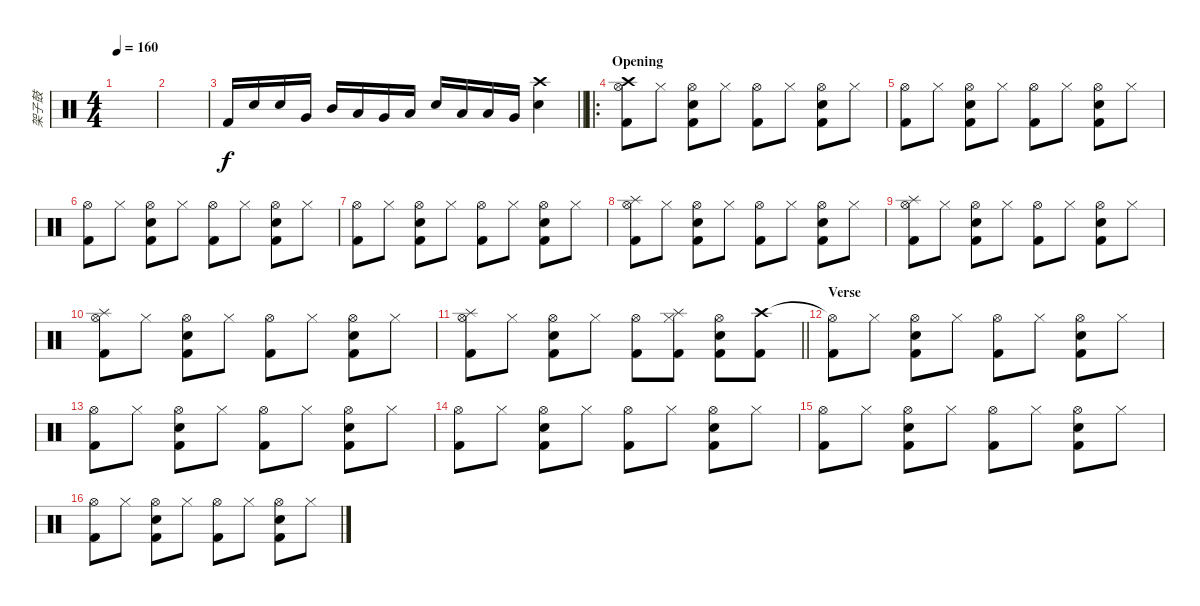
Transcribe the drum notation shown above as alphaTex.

\track ("架子鼓" "架子鼓") {instrument percussion}
\staff {score}
\articulation defaults
\ts (4 4)
\tempo 160
\clef neutral
\ks c
|
|
\barLineRight lightlight "Kick (hit) 2".16 "Snare (hit) 2".16 "Snare (hit) 2".16 "Very Low Tom (hit)".16 "Mid Tom (hit)".16 "Low Tom (hit)".16 "Very Low Tom (hit)".16 "Low Floor Tom (hit)".16 "Snare (hit) 2".16 "Low Tom (hit)".16 "Low Tom (hit)".16 "Very Low Tom (hit)".16
("Crash high (hit)" "Snare (hit) 2").4 |
\ro
\section ("" "Opening")
("Hi-Hat (open)" "Crash high (hit)" "Kick (hit) 2").8 "Hi-Hat (closed)".8 ("Hi-Hat (open)" "Snare (hit) 2" "Kick (hit) 2").8 "Hi-Hat (closed)".8 ("Hi-Hat (open)" "Kick (hit) 2").8 "Hi-Hat (closed)".8 ("Hi-Hat (open)" "Snare (hit) 2" "Kick (hit) 2").8 "Hi-Hat (closed)".8 |
("Hi-Hat (open)" "Kick (hit) 2").8 "Hi-Hat (closed)".8 ("Hi-Hat (open)" "Snare (hit) 2" "Kick (hit) 2").8 "Hi-Hat (closed)".8 ("Hi-Hat (open)" "Kick (hit) 2").8 "Hi-Hat (closed)".8 ("Hi-Hat (open)" "Snare (hit) 2" "Kick (hit) 2").8 "Hi-Hat (closed)".8 |
("Hi-Hat (open)" "Kick (hit) 2").8 "Hi-Hat (closed)".8 ("Hi-Hat (open)" "Snare (hit) 2" "Kick (hit) 2").8 "Hi-Hat (closed)".8 ("Hi-Hat (open)" "Kick (hit) 2").8 "Hi-Hat (closed)".8 ("Hi-Hat (open)" "Snare (hit) 2" "Kick (hit) 2").8 "Hi-Hat (closed)".8 |
("Hi-Hat (open)" "Kick (hit) 2").8 "Hi-Hat (closed)".8 ("Hi-Hat (open)" "Snare (hit) 2" "Kick (hit) 2").8 "Hi-Hat (closed)".8 ("Hi-Hat (open)" "Kick (hit) 2").8 "Hi-Hat (closed)".8 ("Hi-Hat (open)" "Snare (hit) 2" "Kick (hit) 2").8 "Hi-Hat (closed)".8 |
("Hi-Hat (open)" "Splash (hit)" "Kick (hit) 2").8 "Hi-Hat (closed)".8 ("Hi-Hat (open)" "Snare (hit) 2" "Kick (hit) 2").8 "Hi-Hat (closed)".8 ("Hi-Hat (open)" "Kick (hit) 2").8 "Hi-Hat (closed)".8 ("Hi-Hat (open)" "Snare (hit) 2" "Kick (hit) 2").8 "Hi-Hat (closed)".8 |
("Hi-Hat (open)" "Splash (hit)" "Kick (hit) 2").8 "Hi-Hat (closed)".8 ("Hi-Hat (open)" "Snare (hit) 2" "Kick (hit) 2").8 "Hi-Hat (closed)".8 ("Hi-Hat (open)" "Kick (hit) 2").8 "Hi-Hat (closed)".8 ("Hi-Hat (open)" "Snare (hit) 2" "Kick (hit) 2").8 "Hi-Hat (closed)".8 |
("Hi-Hat (open)" "Splash (hit)" "Kick (hit) 2").8 "Hi-Hat (closed)".8 ("Hi-Hat (open)" "Snare (hit) 2" "Kick (hit) 2").8 "Hi-Hat (closed)".8 ("Hi-Hat (open)" "Kick (hit) 2").8 "Hi-Hat (closed)".8 ("Hi-Hat (open)" "Snare (hit) 2" "Kick (hit) 2").8 "Hi-Hat (closed)".8 |
\barLineRight lightlight
("Hi-Hat (open)" "Splash (hit)" "Kick (hit) 2").8 "Hi-Hat (closed)".8 ("Hi-Hat (open)" "Snare (hit) 2" "Kick (hit) 2").8 "Hi-Hat (closed)".8 ("Hi-Hat (open)" "Kick (hit) 2").8 ("Hi-Hat (closed)" "Splash (hit)" "Kick (hit) 2").8 ("Hi-Hat (open)" "Snare (hit) 2" "Kick (hit) 2").8 ("Crash high (hit)" "Kick (hit) 2").8 |
\section ("" "Verse")
("Hi-Hat (open)"{t} "Kick (hit) 2").8 "Hi-Hat (closed)".8 ("Hi-Hat (open)" "Snare (hit) 2" "Kick (hit) 2").8 "Hi-Hat (closed)".8 ("Hi-Hat (open)" "Kick (hit) 2").8 "Hi-Hat (closed)".8 ("Hi-Hat (open)" "Snare (hit) 2" "Kick (hit) 2").8 "Hi-Hat (closed)".8 |
("Hi-Hat (open)" "Kick (hit) 2").8 "Hi-Hat (closed)".8 ("Hi-Hat (open)" "Snare (hit) 2" "Kick (hit) 2").8 "Hi-Hat (closed)".8 ("Hi-Hat (open)" "Kick (hit) 2").8 "Hi-Hat (closed)".8 ("Hi-Hat (open)" "Snare (hit) 2" "Kick (hit) 2").8 "Hi-Hat (closed)".8 |
("Hi-Hat (open)" "Kick (hit) 2").8 "Hi-Hat (closed)".8 ("Hi-Hat (open)" "Snare (hit) 2" "Kick (hit) 2").8 "Hi-Hat (closed)".8 ("Hi-Hat (open)" "Kick (hit) 2").8 "Hi-Hat (closed)".8 ("Hi-Hat (open)" "Snare (hit) 2" "Kick (hit) 2").8 "Hi-Hat (closed)".8 |
("Hi-Hat (open)" "Kick (hit) 2").8 "Hi-Hat (closed)".8 ("Hi-Hat (open)" "Snare (hit) 2" "Kick (hit) 2").8 "Hi-Hat (closed)".8 ("Hi-Hat (open)" "Kick (hit) 2").8 "Hi-Hat (closed)".8 ("Hi-Hat (open)" "Snare (hit) 2" "Kick (hit) 2").8 "Hi-Hat (closed)".8 |
("Hi-Hat (open)" "Kick (hit) 2").8 "Hi-Hat (closed)".8 ("Hi-Hat (open)" "Snare (hit) 2" "Kick (hit) 2").8 "Hi-Hat (closed)".8 ("Hi-Hat (open)" "Kick (hit) 2").8 "Hi-Hat (closed)".8 ("Hi-Hat (open)" "Snare (hit) 2" "Kick (hit) 2").8 "Hi-Hat (closed)".8
